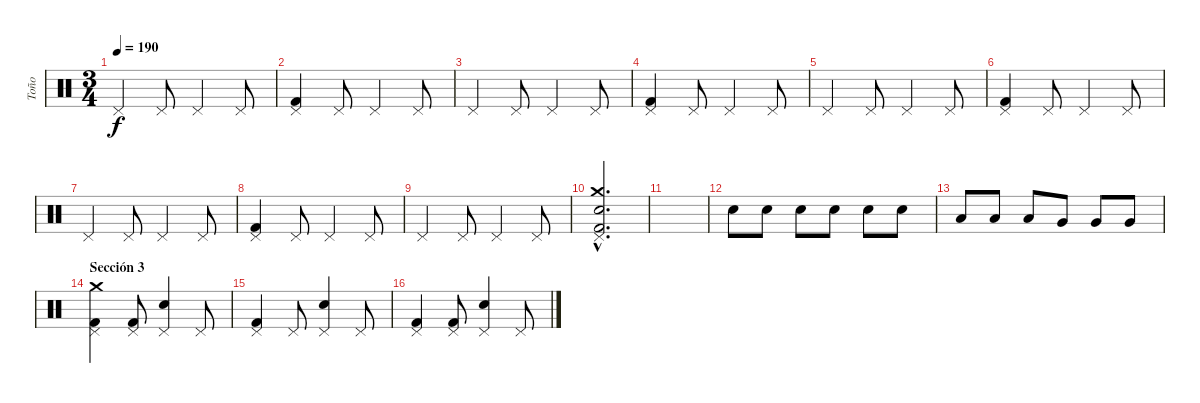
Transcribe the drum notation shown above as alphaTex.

\track ("Toño" "Toño") {instrument percussion}
\staff {score}
\articulation defaults
\ts (3 4)
\tempo 190
\clef neutral
\ks c "Pedal Hi-Hat (hit)".4{dy f} "Pedal Hi-Hat (hit)".8 "Pedal Hi-Hat (hit)".4 "Pedal Hi-Hat (hit)".8
|
("Pedal Hi-Hat (hit)" "Kick (hit) 2").4 "Pedal Hi-Hat (hit)".8 "Pedal Hi-Hat (hit)".4 "Pedal Hi-Hat (hit)".8 |
"Pedal Hi-Hat (hit)".4 "Pedal Hi-Hat (hit)".8 "Pedal Hi-Hat (hit)".4 "Pedal Hi-Hat (hit)".8 |
("Pedal Hi-Hat (hit)" "Kick (hit) 2").4 "Pedal Hi-Hat (hit)".8 "Pedal Hi-Hat (hit)".4 "Pedal Hi-Hat (hit)".8 |
"Pedal Hi-Hat (hit)".4 "Pedal Hi-Hat (hit)".8 "Pedal Hi-Hat (hit)".4 "Pedal Hi-Hat (hit)".8 |
("Pedal Hi-Hat (hit)" "Kick (hit) 2").4 "Pedal Hi-Hat (hit)".8 "Pedal Hi-Hat (hit)".4 "Pedal Hi-Hat (hit)".8 |
"Pedal Hi-Hat (hit)".4 "Pedal Hi-Hat (hit)".8 "Pedal Hi-Hat (hit)".4 "Pedal Hi-Hat (hit)".8 |
("Pedal Hi-Hat (hit)" "Kick (hit) 2").4 "Pedal Hi-Hat (hit)".8 "Pedal Hi-Hat (hit)".4 "Pedal Hi-Hat (hit)".8 |
"Pedal Hi-Hat (hit)".4 "Pedal Hi-Hat (hit)".8 "Pedal Hi-Hat (hit)".4 "Pedal Hi-Hat (hit)".8 |
("Pedal Hi-Hat (hit)"{hac} "Crash medium (hit)"{hac} "Electric Snare (hit)"{hac} "Kick (hit) 2"{hac}).2{d} |
|
"Electric Snare (hit)".8 "Electric Snare (hit)".8 "Electric Snare (hit)".8 "Electric Snare (hit)".8 "Electric Snare (hit)".8 "Electric Snare (hit)".8 |
"Low Tom (hit)".8 "Low Tom (hit)".8 "Low Tom (hit)".8 "Very Low Tom (hit)".8 "Very Low Tom (hit)".8 "Very Low Tom (hit)".8 |
\section ("" "Sección 3")
("Pedal Hi-Hat (hit)" "Crash medium (hit)" "Kick (hit) 2").4 ("Pedal Hi-Hat (hit)" "Kick (hit) 2").8 ("Pedal Hi-Hat (hit)" "Electric Snare (hit)").4 "Pedal Hi-Hat (hit)".8 |
("Pedal Hi-Hat (hit)" "Kick (hit) 2").4 "Pedal Hi-Hat (hit)".8 ("Pedal Hi-Hat (hit)" "Electric Snare (hit)").4 "Pedal Hi-Hat (hit)".8 |
("Pedal Hi-Hat (hit)" "Kick (hit) 2").4 ("Pedal Hi-Hat (hit)" "Kick (hit) 2").8 ("Pedal Hi-Hat (hit)" "Electric Snare (hit)").4 "Pedal Hi-Hat (hit)".8
